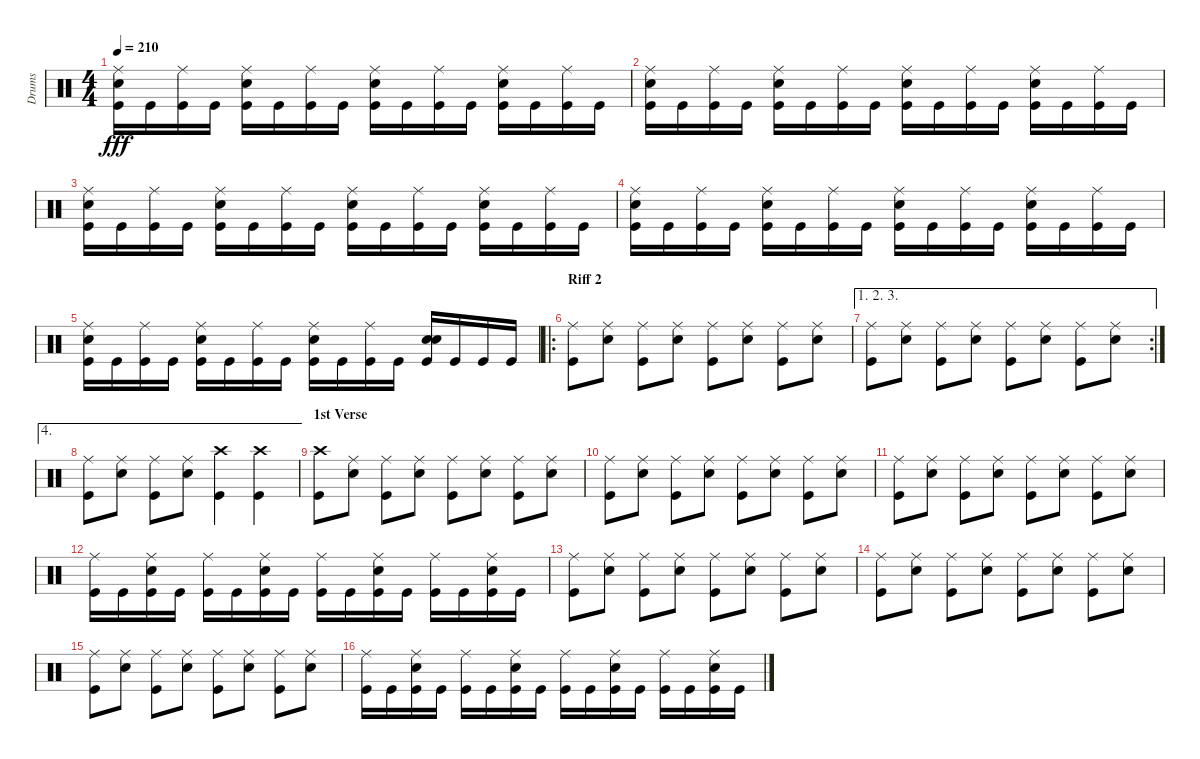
\track ("Drums" "Drums") {instrument percussion}
\staff {score}
\articulation defaults
\ts (4 4)
\tempo 210
\clef neutral
\ks c
("Ride (middle)" "Snare (hit) 2" "Kick (hit)").16{dy fff} "Kick (hit)".16 ("Ride (middle)" "Kick (hit)").16 "Kick (hit)".16 ("Ride (middle)" "Snare (hit) 2" "Kick (hit)").16 "Kick (hit)".16 ("Ride (middle)" "Kick (hit)").16 "Kick (hit)".16 ("Ride (middle)" "Snare (hit) 2" "Kick (hit)").16 "Kick (hit)".16 ("Ride (middle)" "Kick (hit)").16 "Kick (hit)".16 ("Ride (middle)" "Snare (hit) 2" "Kick (hit)").16 "Kick (hit)".16 ("Ride (middle)" "Kick (hit)").16 "Kick (hit)".16 |
("Ride (middle)" "Snare (hit) 2" "Kick (hit)").16 "Kick (hit)".16 ("Ride (middle)" "Kick (hit)").16 "Kick (hit)".16 ("Ride (middle)" "Snare (hit) 2" "Kick (hit)").16 "Kick (hit)".16 ("Ride (middle)" "Kick (hit)").16 "Kick (hit)".16 ("Ride (middle)" "Snare (hit) 2" "Kick (hit)").16 "Kick (hit)".16 ("Ride (middle)" "Kick (hit)").16 "Kick (hit)".16 ("Ride (middle)" "Snare (hit) 2" "Kick (hit)").16 "Kick (hit)".16 ("Ride (middle)" "Kick (hit)").16 "Kick (hit)".16 |
("Ride (middle)" "Snare (hit) 2" "Kick (hit)").16 "Kick (hit)".16 ("Ride (middle)" "Kick (hit)").16 "Kick (hit)".16 ("Ride (middle)" "Snare (hit) 2" "Kick (hit)").16 "Kick (hit)".16 ("Ride (middle)" "Kick (hit)").16 "Kick (hit)".16 ("Ride (middle)" "Snare (hit) 2" "Kick (hit)").16 "Kick (hit)".16 ("Ride (middle)" "Kick (hit)").16 "Kick (hit)".16 ("Ride (middle)" "Snare (hit) 2" "Kick (hit)").16 "Kick (hit)".16 ("Ride (middle)" "Kick (hit)").16 "Kick (hit)".16 |
("Ride (middle)" "Snare (hit) 2" "Kick (hit)").16 "Kick (hit)".16 ("Ride (middle)" "Kick (hit)").16 "Kick (hit)".16 ("Ride (middle)" "Snare (hit) 2" "Kick (hit)").16 "Kick (hit)".16 ("Ride (middle)" "Kick (hit)").16 "Kick (hit)".16 ("Ride (middle)" "Snare (hit) 2" "Kick (hit)").16 "Kick (hit)".16 ("Ride (middle)" "Kick (hit)").16 "Kick (hit)".16 ("Ride (middle)" "Snare (hit) 2" "Kick (hit)").16 "Kick (hit)".16 ("Ride (middle)" "Kick (hit)").16 "Kick (hit)".16 |
("Ride (middle)" "Snare (hit) 2" "Kick (hit)").16 "Kick (hit)".16 ("Ride (middle)" "Kick (hit)").16 "Kick (hit)".16 ("Ride (middle)" "Snare (hit) 2" "Kick (hit)").16 "Kick (hit)".16 ("Ride (middle)" "Kick (hit)").16 "Kick (hit)".16 ("Ride (middle)" "Snare (hit) 2" "Kick (hit)").16 "Kick (hit)".16 ("Ride (middle)" "Kick (hit)").16 "Kick (hit)".16 ("Snare (hit) 2" "Snare (hit) 2" "Kick (hit)").16 "Kick (hit)".16 "Kick (hit)".16 "Kick (hit)".16 |
\ro
\section ("" "Riff 2")
("Ride (middle)" "Kick (hit)").8 ("Ride (middle)" "Snare (hit) 2").8 ("Ride (middle)" "Kick (hit)").8 ("Ride (middle)" "Snare (hit) 2").8 ("Ride (middle)" "Kick (hit)").8 ("Ride (middle)" "Snare (hit) 2").8 ("Ride (middle)" "Kick (hit)").8 ("Ride (middle)" "Snare (hit) 2").8 |
\ae (1 2 3)
\rc 2
("Ride (middle)" "Kick (hit)").8 ("Ride (middle)" "Snare (hit) 2").8 ("Ride (middle)" "Kick (hit)").8 ("Ride (middle)" "Snare (hit) 2").8 ("Ride (middle)" "Kick (hit)").8 ("Ride (middle)" "Snare (hit) 2").8 ("Ride (middle)" "Kick (hit)").8 ("Ride (middle)" "Snare (hit) 2").8 |
\ae 4
("Ride (middle)" "Kick (hit)").8 ("Ride (middle)" "Snare (hit) 2").8 ("Ride (middle)" "Kick (hit)").8 ("Ride (middle)" "Snare (hit) 2").8 ("Crash high (hit)" "Kick (hit)").4 ("Crash high (hit)" "Kick (hit)").4 |
\section ("" "1st Verse")
("Crash high (hit)" "Kick (hit)").8 ("Ride (middle)" "Snare (hit) 2").8 ("Ride (middle)" "Kick (hit)").8 ("Ride (middle)" "Snare (hit) 2").8 ("Ride (middle)" "Kick (hit)").8 ("Ride (middle)" "Snare (hit) 2").8 ("Ride (middle)" "Kick (hit)").8 ("Ride (middle)" "Snare (hit) 2").8 |
("Ride (middle)" "Kick (hit)").8 ("Ride (middle)" "Snare (hit) 2").8 ("Ride (middle)" "Kick (hit)").8 ("Ride (middle)" "Snare (hit) 2").8 ("Ride (middle)" "Kick (hit)").8 ("Ride (middle)" "Snare (hit) 2").8 ("Ride (middle)" "Kick (hit)").8 ("Ride (middle)" "Snare (hit) 2").8 |
("Ride (middle)" "Kick (hit)").8 ("Ride (middle)" "Snare (hit) 2").8 ("Ride (middle)" "Kick (hit)").8 ("Ride (middle)" "Snare (hit) 2").8 ("Ride (middle)" "Kick (hit)").8 ("Ride (middle)" "Snare (hit) 2").8 ("Ride (middle)" "Kick (hit)").8 ("Ride (middle)" "Snare (hit) 2").8 |
("Ride (middle)" "Kick (hit)").16 "Kick (hit)".16 ("Ride (middle)" "Snare (hit) 2" "Kick (hit)").16 "Kick (hit)".16 ("Ride (middle)" "Kick (hit)").16 "Kick (hit)".16 ("Ride (middle)" "Snare (hit) 2" "Kick (hit)").16 "Kick (hit)".16 ("Ride (middle)" "Kick (hit)").16 "Kick (hit)".16 ("Ride (middle)" "Snare (hit) 2" "Kick (hit)").16 "Kick (hit)".16 ("Ride (middle)" "Kick (hit)").16 "Kick (hit)".16 ("Ride (middle)" "Snare (hit) 2" "Kick (hit)").16 "Kick (hit)".16 |
("Ride (middle)" "Kick (hit)").8 ("Ride (middle)" "Snare (hit) 2").8 ("Ride (middle)" "Kick (hit)").8 ("Ride (middle)" "Snare (hit) 2").8 ("Ride (middle)" "Kick (hit)").8 ("Ride (middle)" "Snare (hit) 2").8 ("Ride (middle)" "Kick (hit)").8 ("Ride (middle)" "Snare (hit) 2").8 |
("Ride (middle)" "Kick (hit)").8 ("Ride (middle)" "Snare (hit) 2").8 ("Ride (middle)" "Kick (hit)").8 ("Ride (middle)" "Snare (hit) 2").8 ("Ride (middle)" "Kick (hit)").8 ("Ride (middle)" "Snare (hit) 2").8 ("Ride (middle)" "Kick (hit)").8 ("Ride (middle)" "Snare (hit) 2").8 |
("Ride (middle)" "Kick (hit)").8 ("Ride (middle)" "Snare (hit) 2").8 ("Ride (middle)" "Kick (hit)").8 ("Ride (middle)" "Snare (hit) 2").8 ("Ride (middle)" "Kick (hit)").8 ("Ride (middle)" "Snare (hit) 2").8 ("Ride (middle)" "Kick (hit)").8 ("Ride (middle)" "Snare (hit) 2").8 |
("Ride (middle)" "Kick (hit)").16 "Kick (hit)".16 ("Ride (middle)" "Snare (hit) 2" "Kick (hit)").16 "Kick (hit)".16 ("Ride (middle)" "Kick (hit)").16 "Kick (hit)".16 ("Ride (middle)" "Snare (hit) 2" "Kick (hit)").16 "Kick (hit)".16 ("Ride (middle)" "Kick (hit)").16 "Kick (hit)".16 ("Ride (middle)" "Snare (hit) 2" "Kick (hit)").16 "Kick (hit)".16 ("Ride (middle)" "Kick (hit)").16 "Kick (hit)".16 ("Ride (middle)" "Snare (hit) 2" "Kick (hit)").16 "Kick (hit)".16
